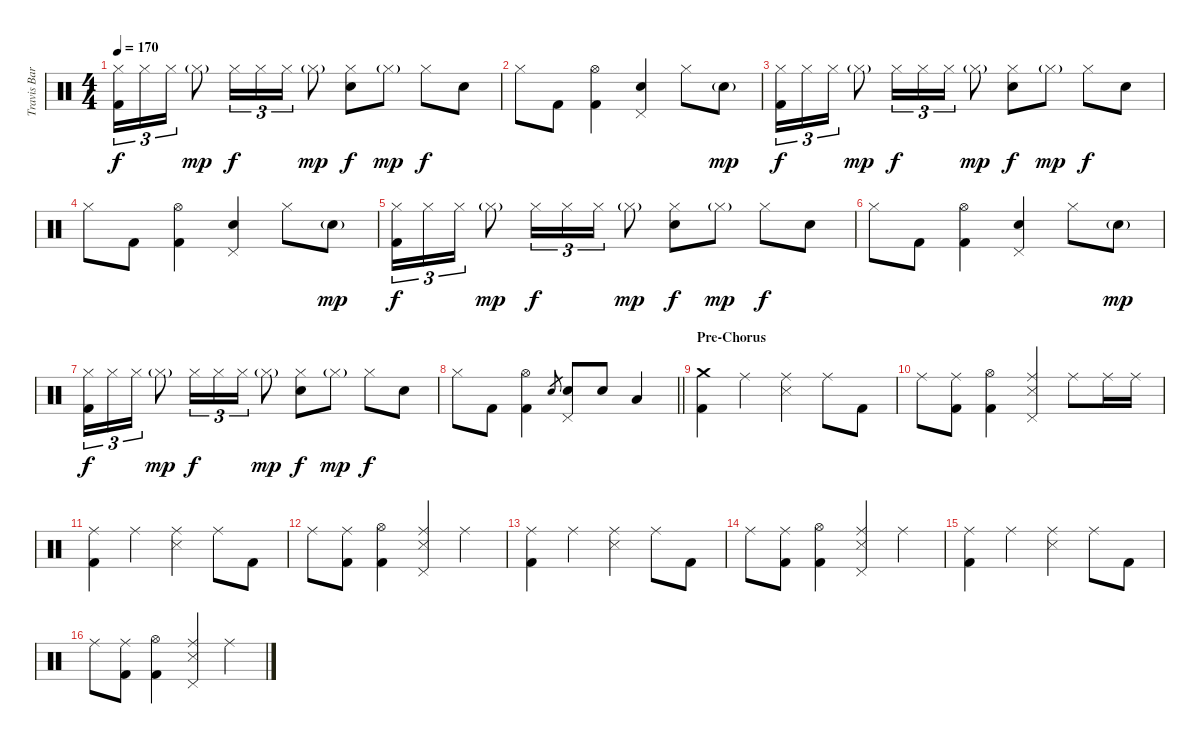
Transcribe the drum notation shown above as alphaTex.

\track ("Travis Barker - Drums" "Travis Bar") {instrument percussion}
\staff {score}
\articulation defaults
\ts (4 4)
\tempo 170
\clef neutral
\ks c
("Hi-Hat (closed)" "Kick (hit) 2").16{tu (3 2) dy f} "Hi-Hat (closed)".16{tu (3 2)} "Hi-Hat (closed)".16{tu (3 2)} "Hi-Hat (closed)"{g}.8{dy mp} "Hi-Hat (closed)".16{tu (3 2) dy f} "Hi-Hat (closed)".16{tu (3 2)} "Hi-Hat (closed)".16{tu (3 2)} "Hi-Hat (closed)"{g}.8{dy mp} ("Hi-Hat (closed)" "Electric Snare (hit)").8{dy f} "Hi-Hat (closed)"{g}.8{dy mp} "Hi-Hat (closed)".8{dy f} "Electric Snare (hit)".8 |
"Hi-Hat (closed)".8 "Kick (hit) 2".8 ("Hi-Hat (open)" "Kick (hit) 2").4 ("Pedal Hi-Hat (hit)" "Electric Snare (hit)").4 "Hi-Hat (closed)".8 "Electric Snare (hit)"{g}.8{dy mp} |
("Hi-Hat (closed)" "Kick (hit) 2").16{tu (3 2) dy f} "Hi-Hat (closed)".16{tu (3 2)} "Hi-Hat (closed)".16{tu (3 2)} "Hi-Hat (closed)"{g}.8{dy mp} "Hi-Hat (closed)".16{tu (3 2) dy f} "Hi-Hat (closed)".16{tu (3 2)} "Hi-Hat (closed)".16{tu (3 2)} "Hi-Hat (closed)"{g}.8{dy mp} ("Hi-Hat (closed)" "Electric Snare (hit)").8{dy f} "Hi-Hat (closed)"{g}.8{dy mp} "Hi-Hat (closed)".8{dy f} "Electric Snare (hit)".8 |
"Hi-Hat (closed)".8 "Kick (hit) 2".8 ("Hi-Hat (open)" "Kick (hit) 2").4 ("Pedal Hi-Hat (hit)" "Electric Snare (hit)").4 "Hi-Hat (closed)".8 "Electric Snare (hit)"{g}.8{dy mp} |
("Hi-Hat (closed)" "Kick (hit) 2").16{tu (3 2) dy f} "Hi-Hat (closed)".16{tu (3 2)} "Hi-Hat (closed)".16{tu (3 2)} "Hi-Hat (closed)"{g}.8{dy mp} "Hi-Hat (closed)".16{tu (3 2) dy f} "Hi-Hat (closed)".16{tu (3 2)} "Hi-Hat (closed)".16{tu (3 2)} "Hi-Hat (closed)"{g}.8{dy mp} ("Hi-Hat (closed)" "Electric Snare (hit)").8{dy f} "Hi-Hat (closed)"{g}.8{dy mp} "Hi-Hat (closed)".8{dy f} "Electric Snare (hit)".8 |
"Hi-Hat (closed)".8 "Kick (hit) 2".8 ("Hi-Hat (open)" "Kick (hit) 2").4 ("Pedal Hi-Hat (hit)" "Electric Snare (hit)").4 "Hi-Hat (closed)".8 "Electric Snare (hit)"{g}.8{dy mp} |
("Hi-Hat (closed)" "Kick (hit) 2").16{tu (3 2) dy f} "Hi-Hat (closed)".16{tu (3 2)} "Hi-Hat (closed)".16{tu (3 2)} "Hi-Hat (closed)"{g}.8{dy mp} "Hi-Hat (closed)".16{tu (3 2) dy f} "Hi-Hat (closed)".16{tu (3 2)} "Hi-Hat (closed)".16{tu (3 2)} "Hi-Hat (closed)"{g}.8{dy mp} ("Hi-Hat (closed)" "Electric Snare (hit)").8{dy f} "Hi-Hat (closed)"{g}.8{dy mp} "Hi-Hat (closed)".8{dy f} "Electric Snare (hit)".8 |
\barLineRight lightlight "Hi-Hat (closed)".8 "Kick (hit) 2".8
("Hi-Hat (open)" "Kick (hit) 2").4 "Electric Snare (hit)".8{gr} ("Pedal Hi-Hat (hit)" "Electric Snare (hit)").8 "Electric Snare (hit)".8 "Low Tom (hit)".4 |
\section ("" "Pre-Chorus")
("Crash medium (hit)" "Kick (hit) 2").4 "Ride (middle)".4 ("Ride (middle)" "Snare (side stick) 3").4 "Ride (middle)".8 "Kick (hit) 2".8 |
"Ride (middle)".8 ("Ride (middle)" "Kick (hit) 2").8 ("Hi-Hat (open)" "Kick (hit) 2").4 ("Ride (middle)" "Pedal Hi-Hat (hit)" "Snare (side stick) 3").4 "Ride (middle)".8 "Ride (middle)".16 "Ride (middle)".16 |
("Ride (middle)" "Kick (hit) 2").4 "Ride (middle)".4 ("Ride (middle)" "Snare (side stick) 3").4 "Ride (middle)".8 "Kick (hit) 2".8 |
"Ride (middle)".8 ("Ride (middle)" "Kick (hit) 2").8 ("Hi-Hat (open)" "Kick (hit) 2").4 ("Ride (middle)" "Pedal Hi-Hat (hit)" "Snare (side stick) 3").4 "Ride (middle)".4 |
("Ride (middle)" "Kick (hit) 2").4 "Ride (middle)".4 ("Ride (middle)" "Snare (side stick) 3").4 "Ride (middle)".8 "Kick (hit) 2".8 |
"Ride (middle)".8 ("Ride (middle)" "Kick (hit) 2").8 ("Hi-Hat (open)" "Kick (hit) 2").4 ("Ride (middle)" "Pedal Hi-Hat (hit)" "Snare (side stick) 3").4 "Ride (middle)".4 |
("Ride (middle)" "Kick (hit) 2").4 "Ride (middle)".4 ("Ride (middle)" "Snare (side stick) 3").4 "Ride (middle)".8 "Kick (hit) 2".8 |
"Ride (middle)".8 ("Ride (middle)" "Kick (hit) 2").8 ("Hi-Hat (open)" "Kick (hit) 2").4 ("Ride (middle)" "Pedal Hi-Hat (hit)" "Snare (side stick) 3").4 "Ride (middle)".4
